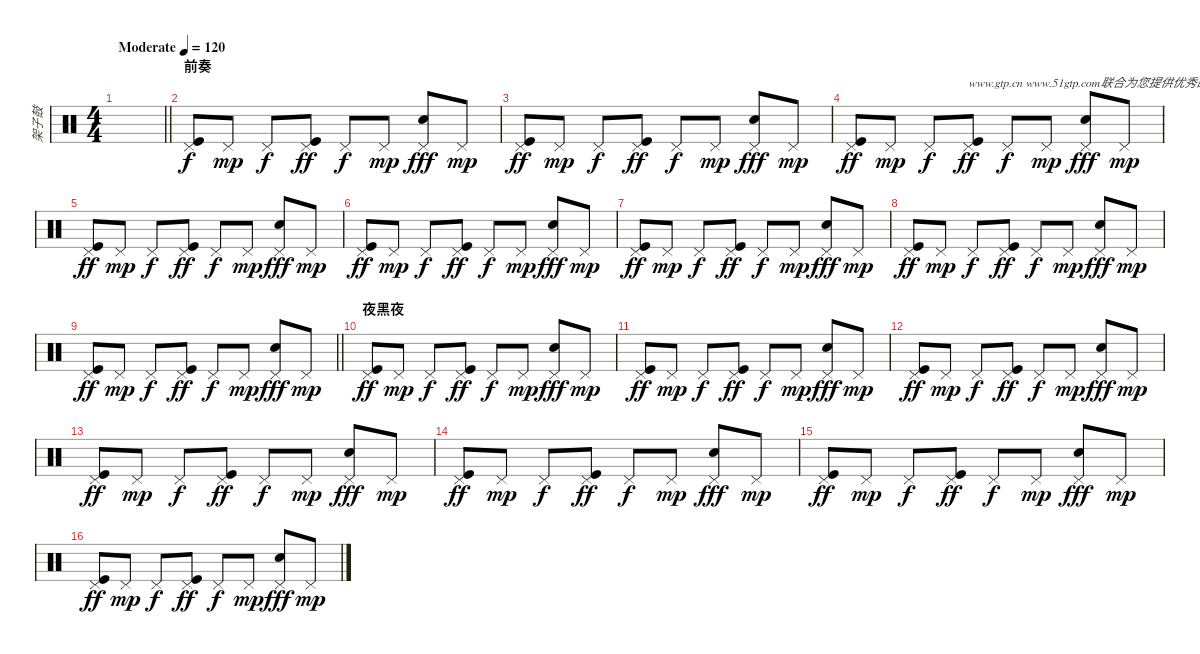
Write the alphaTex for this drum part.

\track ("架子鼓" "架子鼓") {instrument percussion}
\staff {score}
\articulation defaults
\ts (4 4)
\tempo (120 "Moderate")
\clef neutral
\barLineRight lightlight
\ks c
|
\section ("" "前奏")
("Pedal Hi-Hat (hit)" "Kick (hit)").8 "Pedal Hi-Hat (hit)".8{dy mp} "Pedal Hi-Hat (hit)".8{dy f} ("Pedal Hi-Hat (hit)" "Kick (hit)").8{dy ff} "Pedal Hi-Hat (hit)".8{dy f} "Pedal Hi-Hat (hit)".8{dy mp} ("Pedal Hi-Hat (hit)" "Snare (hit) 2").8{dy fff} "Pedal Hi-Hat (hit)".8{dy mp} |
("Pedal Hi-Hat (hit)" "Kick (hit)").8{dy ff} "Pedal Hi-Hat (hit)".8{dy mp} "Pedal Hi-Hat (hit)".8{dy f} ("Pedal Hi-Hat (hit)" "Kick (hit)").8{dy ff} "Pedal Hi-Hat (hit)".8{dy f} "Pedal Hi-Hat (hit)".8{dy mp} ("Pedal Hi-Hat (hit)" "Snare (hit) 2").8{dy fff} "Pedal Hi-Hat (hit)".8{dy mp} |
("Pedal Hi-Hat (hit)" "Kick (hit)").8{dy ff} "Pedal Hi-Hat (hit)".8{dy mp} "Pedal Hi-Hat (hit)".8{dy f} ("Pedal Hi-Hat (hit)" "Kick (hit)").8{txt "www.gtp.cn www.51gtp.com联合为您提供优秀的GTP!" dy ff} "Pedal Hi-Hat (hit)".8{dy f} "Pedal Hi-Hat (hit)".8{dy mp} ("Pedal Hi-Hat (hit)" "Snare (hit) 2").8{dy fff} "Pedal Hi-Hat (hit)".8{dy mp} |
("Pedal Hi-Hat (hit)" "Kick (hit)").8{dy ff} "Pedal Hi-Hat (hit)".8{dy mp} "Pedal Hi-Hat (hit)".8{dy f} ("Pedal Hi-Hat (hit)" "Kick (hit)").8{dy ff} "Pedal Hi-Hat (hit)".8{dy f} "Pedal Hi-Hat (hit)".8{dy mp} ("Pedal Hi-Hat (hit)" "Snare (hit) 2").8{dy fff} "Pedal Hi-Hat (hit)".8{dy mp} |
("Pedal Hi-Hat (hit)" "Kick (hit)").8{dy ff} "Pedal Hi-Hat (hit)".8{dy mp} "Pedal Hi-Hat (hit)".8{dy f} ("Pedal Hi-Hat (hit)" "Kick (hit)").8{dy ff} "Pedal Hi-Hat (hit)".8{dy f} "Pedal Hi-Hat (hit)".8{dy mp} ("Pedal Hi-Hat (hit)" "Snare (hit) 2").8{dy fff} "Pedal Hi-Hat (hit)".8{dy mp} |
("Pedal Hi-Hat (hit)" "Kick (hit)").8{dy ff} "Pedal Hi-Hat (hit)".8{dy mp} "Pedal Hi-Hat (hit)".8{dy f} ("Pedal Hi-Hat (hit)" "Kick (hit)").8{dy ff} "Pedal Hi-Hat (hit)".8{dy f} "Pedal Hi-Hat (hit)".8{dy mp} ("Pedal Hi-Hat (hit)" "Snare (hit) 2").8{dy fff} "Pedal Hi-Hat (hit)".8{dy mp} |
("Pedal Hi-Hat (hit)" "Kick (hit)").8{dy ff} "Pedal Hi-Hat (hit)".8{dy mp} "Pedal Hi-Hat (hit)".8{dy f} ("Pedal Hi-Hat (hit)" "Kick (hit)").8{dy ff} "Pedal Hi-Hat (hit)".8{dy f} "Pedal Hi-Hat (hit)".8{dy mp} ("Pedal Hi-Hat (hit)" "Snare (hit) 2").8{dy fff} "Pedal Hi-Hat (hit)".8{dy mp} |
\barLineRight lightlight
("Pedal Hi-Hat (hit)" "Kick (hit)").8{dy ff} "Pedal Hi-Hat (hit)".8{dy mp} "Pedal Hi-Hat (hit)".8{dy f} ("Pedal Hi-Hat (hit)" "Kick (hit)").8{dy ff} "Pedal Hi-Hat (hit)".8{dy f} "Pedal Hi-Hat (hit)".8{dy mp} ("Pedal Hi-Hat (hit)" "Snare (hit) 2").8{dy fff} "Pedal Hi-Hat (hit)".8{dy mp} |
\section ("" "夜黑夜")
("Pedal Hi-Hat (hit)" "Kick (hit)").8{dy ff} "Pedal Hi-Hat (hit)".8{dy mp} "Pedal Hi-Hat (hit)".8{dy f} ("Pedal Hi-Hat (hit)" "Kick (hit)").8{dy ff} "Pedal Hi-Hat (hit)".8{dy f} "Pedal Hi-Hat (hit)".8{dy mp} ("Pedal Hi-Hat (hit)" "Snare (hit) 2").8{dy fff} "Pedal Hi-Hat (hit)".8{dy mp} |
("Pedal Hi-Hat (hit)" "Kick (hit)").8{dy ff} "Pedal Hi-Hat (hit)".8{dy mp} "Pedal Hi-Hat (hit)".8{dy f} ("Pedal Hi-Hat (hit)" "Kick (hit)").8{dy ff} "Pedal Hi-Hat (hit)".8{dy f} "Pedal Hi-Hat (hit)".8{dy mp} ("Pedal Hi-Hat (hit)" "Snare (hit) 2").8{dy fff} "Pedal Hi-Hat (hit)".8{dy mp} |
("Pedal Hi-Hat (hit)" "Kick (hit)").8{dy ff} "Pedal Hi-Hat (hit)".8{dy mp} "Pedal Hi-Hat (hit)".8{dy f} ("Pedal Hi-Hat (hit)" "Kick (hit)").8{dy ff} "Pedal Hi-Hat (hit)".8{dy f} "Pedal Hi-Hat (hit)".8{dy mp} ("Pedal Hi-Hat (hit)" "Snare (hit) 2").8{dy fff} "Pedal Hi-Hat (hit)".8{dy mp} |
("Pedal Hi-Hat (hit)" "Kick (hit)").8{dy ff} "Pedal Hi-Hat (hit)".8{dy mp} "Pedal Hi-Hat (hit)".8{dy f} ("Pedal Hi-Hat (hit)" "Kick (hit)").8{dy ff} "Pedal Hi-Hat (hit)".8{dy f} "Pedal Hi-Hat (hit)".8{dy mp} ("Pedal Hi-Hat (hit)" "Snare (hit) 2").8{dy fff} "Pedal Hi-Hat (hit)".8{dy mp} |
("Pedal Hi-Hat (hit)" "Kick (hit)").8{dy ff} "Pedal Hi-Hat (hit)".8{dy mp} "Pedal Hi-Hat (hit)".8{dy f} ("Pedal Hi-Hat (hit)" "Kick (hit)").8{dy ff} "Pedal Hi-Hat (hit)".8{dy f} "Pedal Hi-Hat (hit)".8{dy mp} ("Pedal Hi-Hat (hit)" "Snare (hit) 2").8{dy fff} "Pedal Hi-Hat (hit)".8{dy mp} |
("Pedal Hi-Hat (hit)" "Kick (hit)").8{dy ff} "Pedal Hi-Hat (hit)".8{dy mp} "Pedal Hi-Hat (hit)".8{dy f} ("Pedal Hi-Hat (hit)" "Kick (hit)").8{dy ff} "Pedal Hi-Hat (hit)".8{dy f} "Pedal Hi-Hat (hit)".8{dy mp} ("Pedal Hi-Hat (hit)" "Snare (hit) 2").8{dy fff} "Pedal Hi-Hat (hit)".8{dy mp} |
("Pedal Hi-Hat (hit)" "Kick (hit)").8{dy ff} "Pedal Hi-Hat (hit)".8{dy mp} "Pedal Hi-Hat (hit)".8{dy f} ("Pedal Hi-Hat (hit)" "Kick (hit)").8{dy ff} "Pedal Hi-Hat (hit)".8{dy f} "Pedal Hi-Hat (hit)".8{dy mp} ("Pedal Hi-Hat (hit)" "Snare (hit) 2").8{dy fff} "Pedal Hi-Hat (hit)".8{dy mp}
